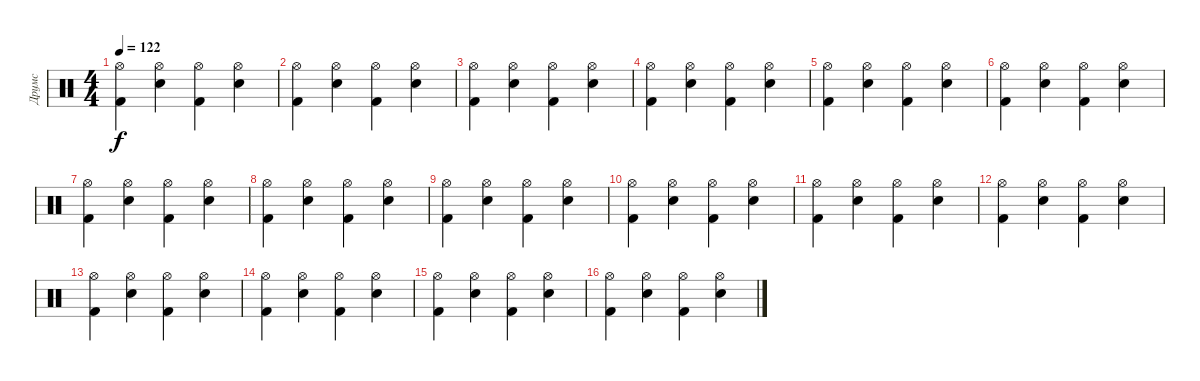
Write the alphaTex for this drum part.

\track ("Друмс" "Друмс") {instrument percussion}
\staff {score}
\articulation defaults
\ts (4 4)
\tempo 122
\clef neutral
\ks c
("Hi-Hat (open)" "Kick (hit) 2").4{dy f} ("Hi-Hat (open)" "Snare (hit) 2").4 ("Hi-Hat (open)" "Kick (hit) 2").4 ("Hi-Hat (open)" "Snare (hit) 2").4 |
("Hi-Hat (open)" "Kick (hit) 2").4 ("Hi-Hat (open)" "Snare (hit) 2").4 ("Hi-Hat (open)" "Kick (hit) 2").4 ("Hi-Hat (open)" "Snare (hit) 2").4 |
("Hi-Hat (open)" "Kick (hit) 2").4 ("Hi-Hat (open)" "Snare (hit) 2").4 ("Hi-Hat (open)" "Kick (hit) 2").4 ("Hi-Hat (open)" "Snare (hit) 2").4 |
("Hi-Hat (open)" "Kick (hit) 2").4 ("Hi-Hat (open)" "Snare (hit) 2").4 ("Hi-Hat (open)" "Kick (hit) 2").4 ("Hi-Hat (open)" "Snare (hit) 2").4 |
("Hi-Hat (open)" "Kick (hit) 2").4 ("Hi-Hat (open)" "Snare (hit) 2").4 ("Hi-Hat (open)" "Kick (hit) 2").4 ("Hi-Hat (open)" "Snare (hit) 2").4 |
("Hi-Hat (open)" "Kick (hit) 2").4 ("Hi-Hat (open)" "Snare (hit) 2").4 ("Hi-Hat (open)" "Kick (hit) 2").4 ("Hi-Hat (open)" "Snare (hit) 2").4 |
("Hi-Hat (open)" "Kick (hit) 2").4 ("Hi-Hat (open)" "Snare (hit) 2").4 ("Hi-Hat (open)" "Kick (hit) 2").4 ("Hi-Hat (open)" "Snare (hit) 2").4 |
("Hi-Hat (open)" "Kick (hit) 2").4 ("Hi-Hat (open)" "Snare (hit) 2").4 ("Hi-Hat (open)" "Kick (hit) 2").4 ("Hi-Hat (open)" "Snare (hit) 2").4 |
("Hi-Hat (open)" "Kick (hit) 2").4 ("Hi-Hat (open)" "Snare (hit) 2").4 ("Hi-Hat (open)" "Kick (hit) 2").4 ("Hi-Hat (open)" "Snare (hit) 2").4 |
("Hi-Hat (open)" "Kick (hit) 2").4 ("Hi-Hat (open)" "Snare (hit) 2").4 ("Hi-Hat (open)" "Kick (hit) 2").4 ("Hi-Hat (open)" "Snare (hit) 2").4 |
("Hi-Hat (open)" "Kick (hit) 2").4 ("Hi-Hat (open)" "Snare (hit) 2").4 ("Hi-Hat (open)" "Kick (hit) 2").4 ("Hi-Hat (open)" "Snare (hit) 2").4 |
("Hi-Hat (open)" "Kick (hit) 2").4 ("Hi-Hat (open)" "Snare (hit) 2").4 ("Hi-Hat (open)" "Kick (hit) 2").4 ("Hi-Hat (open)" "Snare (hit) 2").4 |
("Hi-Hat (open)" "Kick (hit) 2").4 ("Hi-Hat (open)" "Snare (hit) 2").4 ("Hi-Hat (open)" "Kick (hit) 2").4 ("Hi-Hat (open)" "Snare (hit) 2").4 |
("Hi-Hat (open)" "Kick (hit) 2").4 ("Hi-Hat (open)" "Snare (hit) 2").4 ("Hi-Hat (open)" "Kick (hit) 2").4 ("Hi-Hat (open)" "Snare (hit) 2").4 |
("Hi-Hat (open)" "Kick (hit) 2").4 ("Hi-Hat (open)" "Snare (hit) 2").4 ("Hi-Hat (open)" "Kick (hit) 2").4 ("Hi-Hat (open)" "Snare (hit) 2").4 |
("Hi-Hat (open)" "Kick (hit) 2").4 ("Hi-Hat (open)" "Snare (hit) 2").4 ("Hi-Hat (open)" "Kick (hit) 2").4 ("Hi-Hat (open)" "Snare (hit) 2").4
